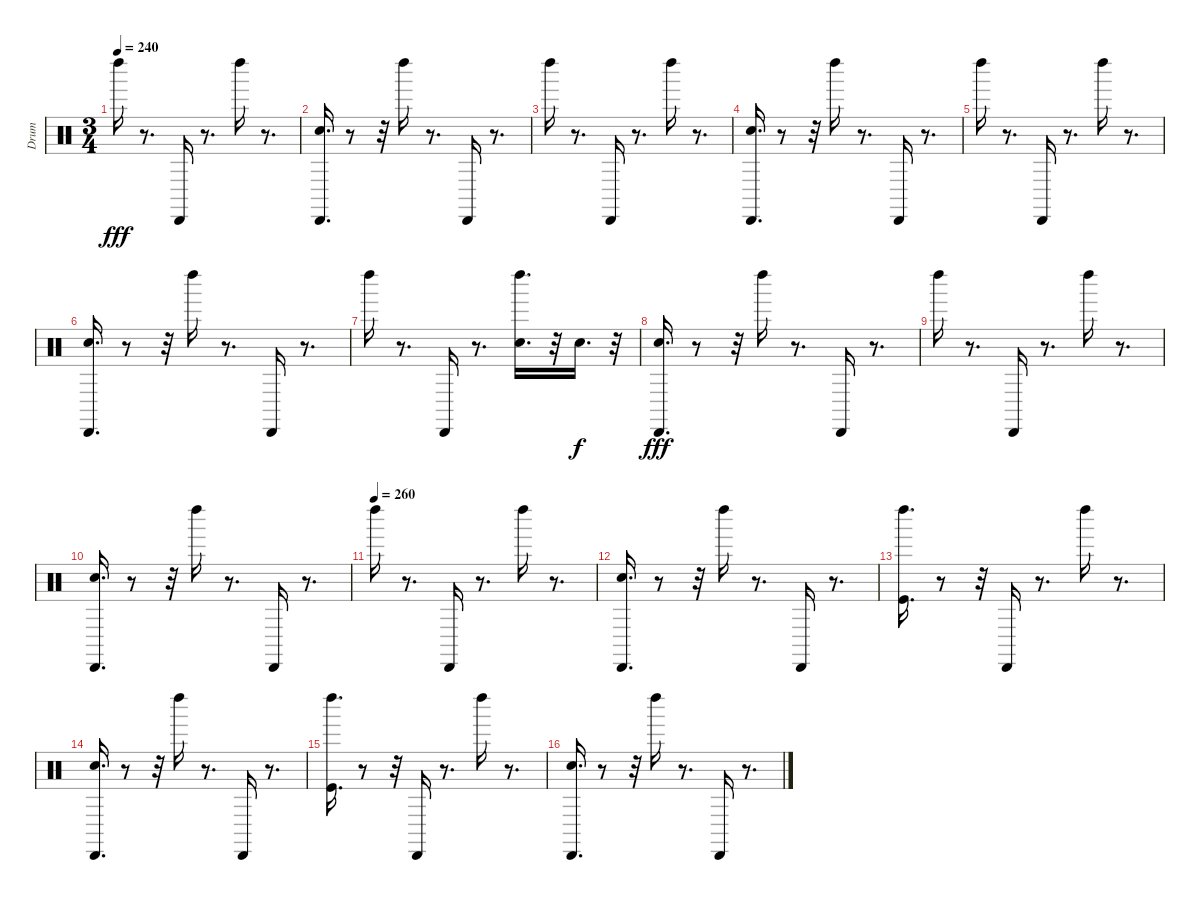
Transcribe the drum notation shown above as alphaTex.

\track ("Drum" "Drum") {instrument percussion}
\staff {score}
\articulation defaults
\ts (3 4)
\tempo 240
\clef neutral
\ks c "Left Maraca (hit)".16{dy fff}
r.8{d} "Cabasa (hit)".16 r.8{d} "Left Maraca (hit)".16 r.8{d} |
("Cabasa (hit)" "Electric Snare (hit)").16{d} r.8 r.32 "Left Maraca (hit)".16 r.8{d} "Cabasa (hit)".16 r.8{d} |
"Left Maraca (hit)".16 r.8{d} "Cabasa (hit)".16 r.8{d} "Left Maraca (hit)".16 r.8{d} |
("Cabasa (hit)" "Electric Snare (hit)").16{d} r.8 r.32 "Left Maraca (hit)".16 r.8{d} "Cabasa (hit)".16 r.8{d} |
"Left Maraca (hit)".16 r.8{d} "Cabasa (hit)".16 r.8{d} "Left Maraca (hit)".16 r.8{d} |
("Cabasa (hit)" "Electric Snare (hit)").16{d} r.8 r.32 "Left Maraca (hit)".16 r.8{d} "Cabasa (hit)".16 r.8{d} |
"Left Maraca (hit)".16 r.8{d} "Cabasa (hit)".16 r.8{d} ("Electric Snare (hit)" "Left Maraca (hit)").16{d} r.32 "Electric Snare (hit)".16{d dy f} r.32 |
("Cabasa (hit)" "Electric Snare (hit)").16{d dy fff} r.8 r.32 "Left Maraca (hit)".16 r.8{d} "Cabasa (hit)".16 r.8{d} |
"Left Maraca (hit)".16 r.8{d} "Cabasa (hit)".16 r.8{d} "Left Maraca (hit)".16 r.8{d} |
("Cabasa (hit)" "Electric Snare (hit)").16{d} r.8 r.32 "Left Maraca (hit)".16 r.8{d} "Cabasa (hit)".16 r.8{d} |
\tempo (260)
"Left Maraca (hit)".16 r.8{d} "Cabasa (hit)".16 r.8{d} "Left Maraca (hit)".16 r.8{d} |
("Cabasa (hit)" "Electric Snare (hit)").16{d} r.8 r.32 "Left Maraca (hit)".16 r.8{d} "Cabasa (hit)".16 r.8{d} |
("Left Maraca (hit)" "Kick (hit)").16{d} r.8 r.32 "Cabasa (hit)".16 r.8{d} "Left Maraca (hit)".16 r.8{d} |
("Cabasa (hit)" "Electric Snare (hit)").16{d} r.8 r.32 "Left Maraca (hit)".16 r.8{d} "Cabasa (hit)".16 r.8{d} |
("Left Maraca (hit)" "Kick (hit)").16{d} r.8 r.32 "Cabasa (hit)".16 r.8{d} "Left Maraca (hit)".16 r.8{d} |
("Cabasa (hit)" "Electric Snare (hit)").16{d} r.8 r.32 "Left Maraca (hit)".16 r.8{d} "Cabasa (hit)".16 r.8{d}
